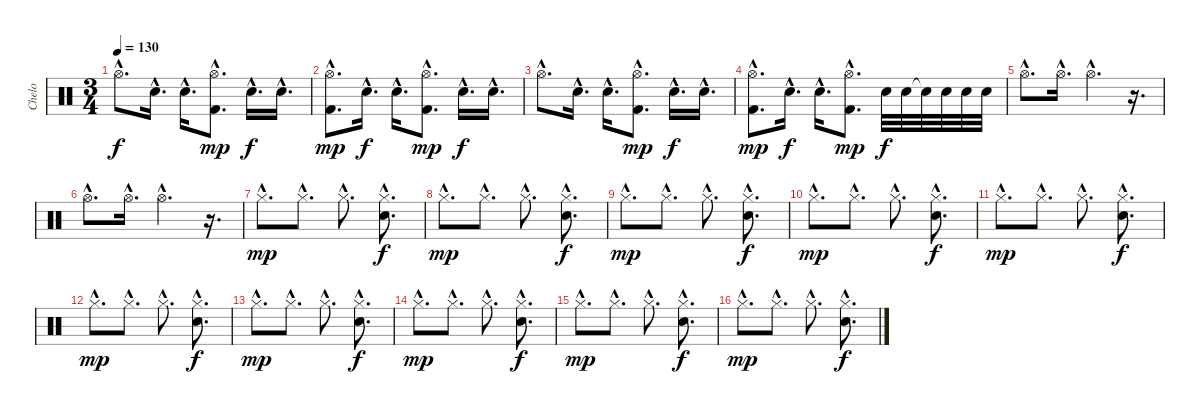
\track ("Chelo" "Chelo") {instrument percussion}
\staff {score}
\articulation defaults
\ts (3 4)
\tempo 130
\clef neutral
\ks c "Hi-Hat (open)"{hac}.8{d dy f} "Electric Snare (hit)"{hac}.16{d} "Electric Snare (hit)"{hac}.16{d}
("Hi-Hat (open)"{hac} "Kick (hit) 2"{hac}).8{d dy mp} "Electric Snare (hit)"{hac}.16{d dy f} "Electric Snare (hit)"{hac}.16{d} |
("Hi-Hat (open)"{hac} "Kick (hit) 2"{hac}).8{d dy mp} "Electric Snare (hit)"{hac}.16{d dy f} "Electric Snare (hit)"{hac}.16{d} ("Hi-Hat (open)"{hac} "Kick (hit) 2"{hac}).8{d dy mp} "Electric Snare (hit)"{hac}.16{d dy f} "Electric Snare (hit)"{hac}.16{d} |
"Hi-Hat (open)"{hac}.8{d} "Electric Snare (hit)"{hac}.16{d} "Electric Snare (hit)"{hac}.16{d} ("Hi-Hat (open)"{hac} "Kick (hit) 2"{hac}).8{d dy mp} "Electric Snare (hit)"{hac}.16{d dy f} "Electric Snare (hit)"{hac}.16{d} |
("Hi-Hat (open)"{hac} "Kick (hit) 2"{hac}).8{d dy mp} "Electric Snare (hit)"{hac}.16{d dy f} "Electric Snare (hit)"{hac}.16{d} ("Hi-Hat (open)"{hac} "Kick (hit) 2"{hac}).8{d dy mp} "Electric Snare (hit)".32{dy f} "Electric Snare (hit)".32 "Electric Snare (hit)"{t}.32 "Electric Snare (hit)".32 "Electric Snare (hit)".32 "Electric Snare (hit)".32 |
"Hi-Hat (open)"{hac}.8{d} "Hi-Hat (open)"{hac}.16{d} "Hi-Hat (open)"{hac}.4{d} r.16{d} |
"Hi-Hat (open)"{hac}.8{d} "Hi-Hat (open)"{hac}.16{d} "Hi-Hat (open)"{hac}.4{d} r.16{d} |
"Hi-Hat (closed)"{hac}.8{d dy mp} "Hi-Hat (closed)"{hac}.8{d} "Hi-Hat (closed)"{hac}.8{d} ("Electric Snare (hit)"{hac} "Hi-Hat (closed)"{hac}).8{d dy f} |
"Hi-Hat (closed)"{hac}.8{d dy mp} "Hi-Hat (closed)"{hac}.8{d} "Hi-Hat (closed)"{hac}.8{d} ("Electric Snare (hit)"{hac} "Hi-Hat (closed)"{hac}).8{d dy f} |
"Hi-Hat (closed)"{hac}.8{d dy mp} "Hi-Hat (closed)"{hac}.8{d} "Hi-Hat (closed)"{hac}.8{d} ("Electric Snare (hit)"{hac} "Hi-Hat (closed)"{hac}).8{d dy f} |
"Hi-Hat (closed)"{hac}.8{d dy mp} "Hi-Hat (closed)"{hac}.8{d} "Hi-Hat (closed)"{hac}.8{d} ("Electric Snare (hit)"{hac} "Hi-Hat (closed)"{hac}).8{d dy f} |
"Hi-Hat (closed)"{hac}.8{d dy mp} "Hi-Hat (closed)"{hac}.8{d} "Hi-Hat (closed)"{hac}.8{d} ("Electric Snare (hit)"{hac} "Hi-Hat (closed)"{hac}).8{d dy f} |
"Hi-Hat (closed)"{hac}.8{d dy mp} "Hi-Hat (closed)"{hac}.8{d} "Hi-Hat (closed)"{hac}.8{d} ("Electric Snare (hit)"{hac} "Hi-Hat (closed)"{hac}).8{d dy f} |
"Hi-Hat (closed)"{hac}.8{d dy mp} "Hi-Hat (closed)"{hac}.8{d} "Hi-Hat (closed)"{hac}.8{d} ("Electric Snare (hit)"{hac} "Hi-Hat (closed)"{hac}).8{d dy f} |
"Hi-Hat (closed)"{hac}.8{d dy mp} "Hi-Hat (closed)"{hac}.8{d} "Hi-Hat (closed)"{hac}.8{d} ("Electric Snare (hit)"{hac} "Hi-Hat (closed)"{hac}).8{d dy f} |
"Hi-Hat (closed)"{hac}.8{d dy mp} "Hi-Hat (closed)"{hac}.8{d} "Hi-Hat (closed)"{hac}.8{d} ("Electric Snare (hit)"{hac} "Hi-Hat (closed)"{hac}).8{d dy f} |
"Hi-Hat (closed)"{hac}.8{d dy mp} "Hi-Hat (closed)"{hac}.8{d} "Hi-Hat (closed)"{hac}.8{d} ("Electric Snare (hit)"{hac} "Hi-Hat (closed)"{hac}).8{d dy f}
